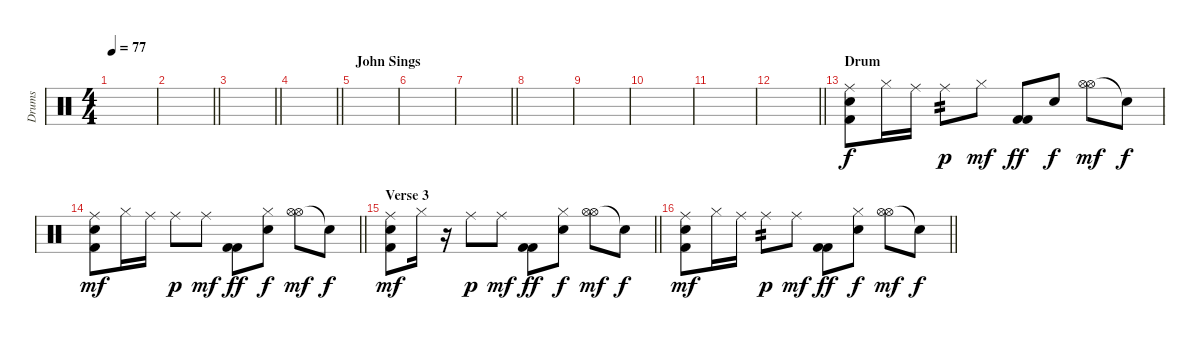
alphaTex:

\track ("Drums" "Drums") {instrument percussion}
\staff {score}
\articulation defaults
\ts (4 4)
\tempo 77
\clef neutral
\ks c
|
\barLineRight lightlight
|
\barLineRight lightlight
|
\barLineRight lightlight
|
\section ("" "John Sings")
|
|
\barLineRight lightlight
|
|
|
|
|
\barLineRight lightlight
|
\section ("" "Drum")
("Ride (middle)" "Electric Snare (hit)" "Kick (hit) 2").8 "Hi-Hat (closed)".16 "Ride (middle)".16 "Ride (middle)".8{tp 2 dy p} "Hi-Hat (closed)".8{dy mf} ("Kick (hit) 2" "Kick (hit) 2").8{dy ff} "Snare (hit) 2".8{dy f} ("Hi-Hat (open)" "Hi-Hat (open)").8{dy mf} "Snare (hit)"{t}.8{dy f} |
\barLineRight lightlight
("Ride (middle)" "Electric Snare (hit)" "Kick (hit) 2").8{dy mf} "Hi-Hat (closed)".16 "Ride (middle)".16 "Ride (middle)".8{dy p} "Ride (middle)".8{dy mf} ("Kick (hit) 2" "Kick (hit) 2").8{dy ff} ("Hi-Hat (closed)" "Snare (hit) 2").8{dy f} ("Hi-Hat (open)" "Hi-Hat (open)").8{dy mf} "Snare (hit)"{t}.8{dy f} |
\section ("" "Verse 3")
\barLineRight lightlight
("Ride (middle)" "Electric Snare (hit)" "Kick (hit) 2").8{dy mf} "Hi-Hat (closed)".16 r.16 "Ride (middle)".8{dy p} "Ride (middle)".8{dy mf} ("Kick (hit) 2" "Kick (hit) 2").8{dy ff} ("Hi-Hat (closed)" "Snare (hit) 2").8{dy f} ("Hi-Hat (open)" "Hi-Hat (open)").8{dy mf} "Snare (hit)"{t}.8{dy f} |
\barLineRight lightlight
("Ride (middle)" "Electric Snare (hit)" "Kick (hit) 2").8{dy mf} "Hi-Hat (closed)".16 "Ride (middle)".16 "Ride (middle)".8{tp 2 dy p} "Ride (middle)".8{dy mf} ("Kick (hit) 2" "Kick (hit) 2").8{dy ff} ("Hi-Hat (closed)" "Snare (hit) 2").8{dy f} ("Hi-Hat (open)" "Hi-Hat (open)").8{dy mf} "Snare (hit)"{t}.8{dy f}
